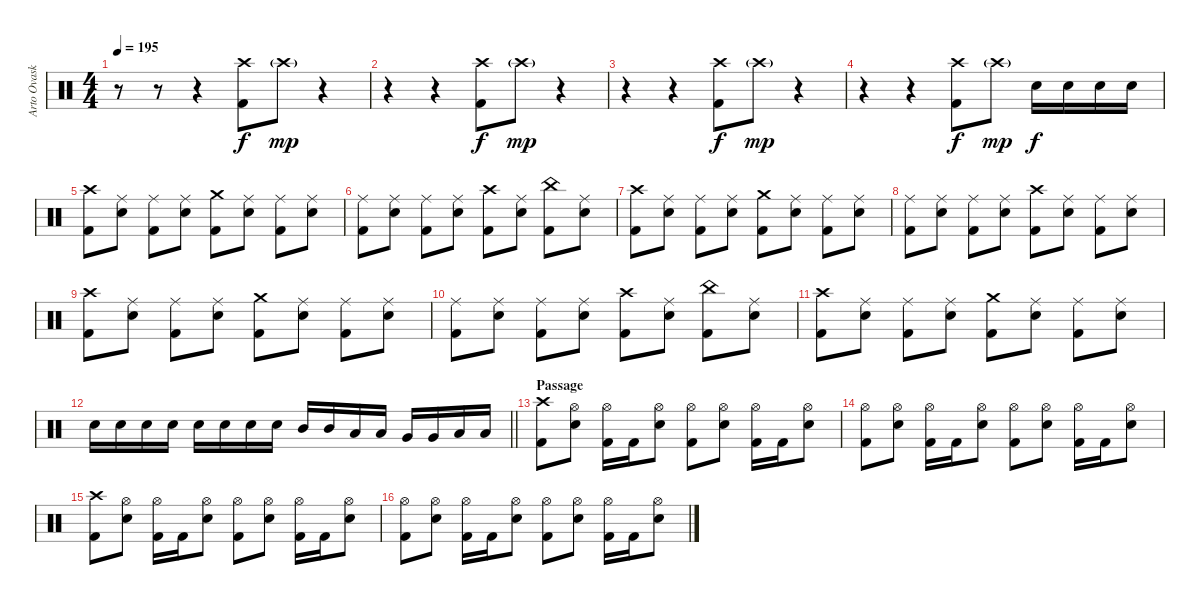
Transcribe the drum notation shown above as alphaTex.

\track ("Arto Ovaskainen" "Arto Ovask") {instrument percussion}
\staff {score}
\articulation defaults
\ts (4 4)
\tempo 195
\clef neutral
\ks c
r.8{dy f} r.8 r.4 ("Crash high (hit)" "Kick (hit) 2").8 "Crash high (hit)"{g}.8{dy mp} r.4 |
r.4 r.4 ("Crash high (hit)" "Kick (hit) 2").8{dy f} "Crash high (hit)"{g}.8{dy mp} r.4 |
r.4 r.4 ("Crash high (hit)" "Kick (hit) 2").8{dy f} "Crash high (hit)"{g}.8{dy mp} r.4 |
r.4 r.4 ("Crash high (hit)" "Kick (hit) 2").8{dy f} "Crash high (hit)"{g}.8{dy mp} "Electric Snare (hit)".16{dy f} "Electric Snare (hit)".16 "Electric Snare (hit)".16 "Electric Snare (hit)".16 |
("Crash high (hit)" "Kick (hit) 2").8 ("Ride (middle)" "Electric Snare (hit)").8 ("Ride (middle)" "Kick (hit) 2").8 ("Ride (middle)" "Electric Snare (hit)").8 ("Crash medium (hit)" "Kick (hit) 2").8 ("Ride (middle)" "Electric Snare (hit)").8 ("Ride (middle)" "Kick (hit) 2").8 ("Ride (middle)" "Electric Snare (hit)").8 |
("Ride (middle)" "Kick (hit) 2").8 ("Ride (middle)" "Electric Snare (hit)").8 ("Ride (middle)" "Kick (hit) 2").8 ("Ride (middle)" "Electric Snare (hit)").8 ("Crash high (hit)" "Kick (hit) 2").8 ("Ride (middle)" "Electric Snare (hit)").8 ("China (hit)" "Kick (hit) 2").8 ("Ride (middle)" "Electric Snare (hit)").8 |
("Crash high (hit)" "Kick (hit) 2").8 ("Ride (middle)" "Electric Snare (hit)").8 ("Ride (middle)" "Kick (hit) 2").8 ("Ride (middle)" "Electric Snare (hit)").8 ("Crash medium (hit)" "Kick (hit) 2").8 ("Ride (middle)" "Electric Snare (hit)").8 ("Ride (middle)" "Kick (hit) 2").8 ("Ride (middle)" "Electric Snare (hit)").8 |
("Ride (middle)" "Kick (hit) 2").8 ("Ride (middle)" "Electric Snare (hit)").8 ("Ride (middle)" "Kick (hit) 2").8 ("Ride (middle)" "Electric Snare (hit)").8 ("Crash high (hit)" "Kick (hit) 2").8 ("Ride (middle)" "Electric Snare (hit)").8 ("Ride (middle)" "Kick (hit) 2").8 ("Ride (middle)" "Electric Snare (hit)").8 |
("Crash high (hit)" "Kick (hit) 2").8 ("Ride (middle)" "Electric Snare (hit)").8 ("Ride (middle)" "Kick (hit) 2").8 ("Ride (middle)" "Electric Snare (hit)").8 ("Crash medium (hit)" "Kick (hit) 2").8 ("Ride (middle)" "Electric Snare (hit)").8 ("Ride (middle)" "Kick (hit) 2").8 ("Ride (middle)" "Electric Snare (hit)").8 |
("Ride (middle)" "Kick (hit) 2").8 ("Ride (middle)" "Electric Snare (hit)").8 ("Ride (middle)" "Kick (hit) 2").8 ("Ride (middle)" "Electric Snare (hit)").8 ("Crash high (hit)" "Kick (hit) 2").8 ("Ride (middle)" "Electric Snare (hit)").8 ("China (hit)" "Kick (hit) 2").8 ("Ride (middle)" "Electric Snare (hit)").8 |
("Crash high (hit)" "Kick (hit) 2").8 ("Ride (middle)" "Electric Snare (hit)").8 ("Ride (middle)" "Kick (hit) 2").8 ("Ride (middle)" "Electric Snare (hit)").8 ("Crash medium (hit)" "Kick (hit) 2").8 ("Ride (middle)" "Electric Snare (hit)").8 ("Ride (middle)" "Kick (hit) 2").8 ("Ride (middle)" "Electric Snare (hit)").8 |
\barLineRight lightlight "Electric Snare (hit)".16 "Electric Snare (hit)".16 "Electric Snare (hit)".16 "Electric Snare (hit)".16 "Electric Snare (hit)".16 "Electric Snare (hit)".16 "Electric Snare (hit)".16 "Electric Snare (hit)".16 "Mid Tom (hit)".16 "Mid Tom (hit)".16 "Low Tom (hit)".16 "Low Tom (hit)".16 "Very Low Tom (hit)".16 "Very Low Tom (hit)".16 "Low Floor Tom (hit)".16 "Low Floor Tom (hit)".16
|
\section ("" "Passage")
("Crash high (hit)" "Kick (hit) 2").8 ("Hi-Hat (open)" "Electric Snare (hit)").8 ("Hi-Hat (open)" "Kick (hit) 2").16 "Kick (hit) 2".16 ("Hi-Hat (open)" "Electric Snare (hit)").8 ("Hi-Hat (open)" "Kick (hit) 2").8 ("Hi-Hat (open)" "Electric Snare (hit)").8 ("Hi-Hat (open)" "Kick (hit) 2").16 "Kick (hit) 2".16 ("Hi-Hat (open)" "Electric Snare (hit)").8 |
("Hi-Hat (open)" "Kick (hit) 2").8 ("Hi-Hat (open)" "Electric Snare (hit)").8 ("Hi-Hat (open)" "Kick (hit) 2").16 "Kick (hit) 2".16 ("Hi-Hat (open)" "Electric Snare (hit)").8 ("Hi-Hat (open)" "Kick (hit) 2").8 ("Hi-Hat (open)" "Electric Snare (hit)").8 ("Hi-Hat (open)" "Kick (hit) 2").16 "Kick (hit) 2".16 ("Hi-Hat (open)" "Electric Snare (hit)").8 |
("Crash high (hit)" "Kick (hit) 2").8 ("Hi-Hat (open)" "Electric Snare (hit)").8 ("Hi-Hat (open)" "Kick (hit) 2").16 "Kick (hit) 2".16 ("Hi-Hat (open)" "Electric Snare (hit)").8 ("Hi-Hat (open)" "Kick (hit) 2").8 ("Hi-Hat (open)" "Electric Snare (hit)").8 ("Hi-Hat (open)" "Kick (hit) 2").16 "Kick (hit) 2".16 ("Hi-Hat (open)" "Electric Snare (hit)").8 |
("Hi-Hat (open)" "Kick (hit) 2").8 ("Hi-Hat (open)" "Electric Snare (hit)").8 ("Hi-Hat (open)" "Kick (hit) 2").16 "Kick (hit) 2".16 ("Hi-Hat (open)" "Electric Snare (hit)").8 ("Hi-Hat (open)" "Kick (hit) 2").8 ("Hi-Hat (open)" "Electric Snare (hit)").8 ("Hi-Hat (open)" "Kick (hit) 2").16 "Kick (hit) 2".16 ("Hi-Hat (open)" "Electric Snare (hit)").8
